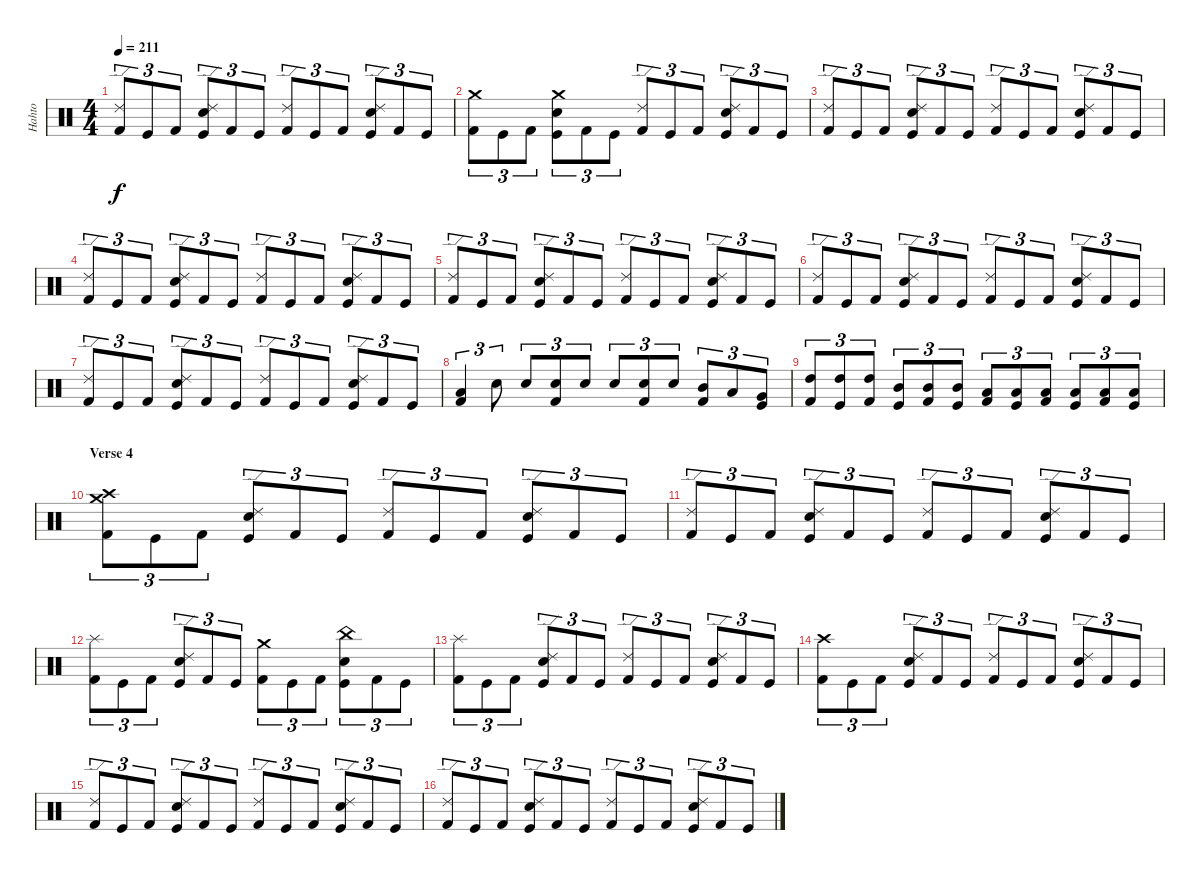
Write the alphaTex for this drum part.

\track ("Hahto" "Hahto") {instrument percussion}
\staff {score}
\articulation defaults
\ts (4 4)
\tempo 211
\clef neutral
\ks c
("Ride (edge) 2" "Kick (hit) 2").8{tu (3 2) dy f} "Kick (hit)".8{tu (3 2)} "Kick (hit) 2".8{tu (3 2)} ("Ride (edge) 2" "Snare (hit) 2" "Kick (hit)").8{tu (3 2)} "Kick (hit) 2".8{tu (3 2)} "Kick (hit)".8{tu (3 2)} ("Ride (edge) 2" "Kick (hit) 2").8{tu (3 2)} "Kick (hit)".8{tu (3 2)} "Kick (hit) 2".8{tu (3 2)} ("Ride (edge) 2" "Snare (hit) 2" "Kick (hit)").8{tu (3 2)} "Kick (hit) 2".8{tu (3 2)} "Kick (hit)".8{tu (3 2)} |
("Crash medium (hit)" "Kick (hit) 2").8{tu (3 2)} "Kick (hit)".8{tu (3 2)} "Kick (hit) 2".8{tu (3 2)} ("Crash medium (hit)" "Snare (hit) 2" "Kick (hit)").8{tu (3 2)} "Kick (hit) 2".8{tu (3 2)} "Kick (hit)".8{tu (3 2)} ("Ride (edge) 2" "Kick (hit) 2").8{tu (3 2)} "Kick (hit)".8{tu (3 2)} "Kick (hit) 2".8{tu (3 2)} ("Ride (edge) 2" "Snare (hit) 2" "Kick (hit)").8{tu (3 2)} "Kick (hit) 2".8{tu (3 2)} "Kick (hit)".8{tu (3 2)} |
("Ride (edge) 2" "Kick (hit) 2").8{tu (3 2)} "Kick (hit)".8{tu (3 2)} "Kick (hit) 2".8{tu (3 2)} ("Ride (edge) 2" "Snare (hit) 2" "Kick (hit)").8{tu (3 2)} "Kick (hit) 2".8{tu (3 2)} "Kick (hit)".8{tu (3 2)} ("Ride (edge) 2" "Kick (hit) 2").8{tu (3 2)} "Kick (hit)".8{tu (3 2)} "Kick (hit) 2".8{tu (3 2)} ("Ride (edge) 2" "Snare (hit) 2" "Kick (hit)").8{tu (3 2)} "Kick (hit) 2".8{tu (3 2)} "Kick (hit)".8{tu (3 2)} |
("Ride (edge) 2" "Kick (hit) 2").8{tu (3 2)} "Kick (hit)".8{tu (3 2)} "Kick (hit) 2".8{tu (3 2)} ("Ride (edge) 2" "Snare (hit) 2" "Kick (hit)").8{tu (3 2)} "Kick (hit) 2".8{tu (3 2)} "Kick (hit)".8{tu (3 2)} ("Ride (edge) 2" "Kick (hit) 2").8{tu (3 2)} "Kick (hit)".8{tu (3 2)} "Kick (hit) 2".8{tu (3 2)} ("Ride (edge) 2" "Snare (hit) 2" "Kick (hit)").8{tu (3 2)} "Kick (hit) 2".8{tu (3 2)} "Kick (hit)".8{tu (3 2)} |
("Ride (edge) 2" "Kick (hit) 2").8{tu (3 2)} "Kick (hit)".8{tu (3 2)} "Kick (hit) 2".8{tu (3 2)} ("Ride (edge) 2" "Snare (hit) 2" "Kick (hit)").8{tu (3 2)} "Kick (hit) 2".8{tu (3 2)} "Kick (hit)".8{tu (3 2)} ("Ride (edge) 2" "Kick (hit) 2").8{tu (3 2)} "Kick (hit)".8{tu (3 2)} "Kick (hit) 2".8{tu (3 2)} ("Ride (edge) 2" "Snare (hit) 2" "Kick (hit)").8{tu (3 2)} "Kick (hit) 2".8{tu (3 2)} "Kick (hit)".8{tu (3 2)} |
("Ride (edge) 2" "Kick (hit) 2").8{tu (3 2)} "Kick (hit)".8{tu (3 2)} "Kick (hit) 2".8{tu (3 2)} ("Ride (edge) 2" "Snare (hit) 2" "Kick (hit)").8{tu (3 2)} "Kick (hit) 2".8{tu (3 2)} "Kick (hit)".8{tu (3 2)} ("Ride (edge) 2" "Kick (hit) 2").8{tu (3 2)} "Kick (hit)".8{tu (3 2)} "Kick (hit) 2".8{tu (3 2)} ("Ride (edge) 2" "Snare (hit) 2" "Kick (hit)").8{tu (3 2)} "Kick (hit) 2".8{tu (3 2)} "Kick (hit)".8{tu (3 2)} |
("Ride (edge) 2" "Kick (hit) 2").8{tu (3 2)} "Kick (hit)".8{tu (3 2)} "Kick (hit) 2".8{tu (3 2)} ("Ride (edge) 2" "Snare (hit) 2" "Kick (hit)").8{tu (3 2)} "Kick (hit) 2".8{tu (3 2)} "Kick (hit)".8{tu (3 2)} ("Ride (edge) 2" "Kick (hit) 2").8{tu (3 2)} "Kick (hit)".8{tu (3 2)} "Kick (hit) 2".8{tu (3 2)} ("Ride (edge) 2" "Snare (hit) 2" "Kick (hit)").8{tu (3 2)} "Kick (hit) 2".8{tu (3 2)} "Kick (hit)".8{tu (3 2)} |
("Low Tom (hit)" "Kick (hit) 2").4{tu (3 2)} "Snare (hit) 2".8{tu (3 2)} "Snare (hit) 2".8{tu (3 2)} ("Snare (hit) 2" "Kick (hit) 2").8{tu (3 2)} "Snare (hit) 2".8{tu (3 2)} "Snare (hit) 2".8{tu (3 2)} ("Snare (hit) 2" "Kick (hit) 2").8{tu (3 2)} "Snare (hit) 2".8{tu (3 2)} ("Mid Tom (hit)" "Kick (hit) 2").8{tu (3 2)} "Low Tom (hit)".8{tu (3 2)} ("Very Low Tom (hit)" "Kick (hit)").8{tu (3 2)} |
("High Tom (hit)" "Kick (hit) 2").8{tu (3 2)} ("High Tom (hit)" "Kick (hit)").8{tu (3 2)} ("High Tom (hit)" "Kick (hit) 2").8{tu (3 2)} ("Mid Tom (hit)" "Kick (hit)").8{tu (3 2)} ("Mid Tom (hit)" "Kick (hit) 2").8{tu (3 2)} ("Mid Tom (hit)" "Kick (hit)").8{tu (3 2)} ("Low Tom (hit)" "Kick (hit) 2").8{tu (3 2)} ("Low Tom (hit)" "Kick (hit)").8{tu (3 2)} ("Low Tom (hit)" "Kick (hit) 2").8{tu (3 2)} ("Low Floor Tom (hit)" "Kick (hit)").8{tu (3 2)} ("Low Floor Tom (hit)" "Kick (hit) 2").8{tu (3 2)} ("Low Floor Tom (hit)" "Kick (hit)").8{tu (3 2)} |
\section ("" "Verse 4")
("Crash medium (hit)" "Crash high (hit)" "Kick (hit) 2").8{tu (3 2)} "Kick (hit)".8{tu (3 2)} "Kick (hit) 2".8{tu (3 2)} ("Ride (edge) 2" "Snare (hit) 2" "Kick (hit)").8{tu (3 2)} "Kick (hit) 2".8{tu (3 2)} "Kick (hit)".8{tu (3 2)} ("Ride (edge) 2" "Kick (hit) 2").8{tu (3 2)} "Kick (hit)".8{tu (3 2)} "Kick (hit) 2".8{tu (3 2)} ("Ride (edge) 2" "Snare (hit) 2" "Kick (hit)").8{tu (3 2)} "Kick (hit) 2".8{tu (3 2)} "Kick (hit)".8{tu (3 2)} |
("Ride (edge) 2" "Kick (hit) 2").8{tu (3 2)} "Kick (hit)".8{tu (3 2)} "Kick (hit) 2".8{tu (3 2)} ("Ride (edge) 2" "Snare (hit) 2" "Kick (hit)").8{tu (3 2)} "Kick (hit) 2".8{tu (3 2)} "Kick (hit)".8{tu (3 2)} ("Ride (edge) 2" "Kick (hit) 2").8{tu (3 2)} "Kick (hit)".8{tu (3 2)} "Kick (hit) 2".8{tu (3 2)} ("Ride (edge) 2" "Snare (hit) 2" "Kick (hit)").8{tu (3 2)} "Kick (hit) 2".8{tu (3 2)} "Kick (hit)".8{tu (3 2)} |
("Splash (hit)" "Kick (hit) 2").8{tu (3 2)} "Kick (hit)".8{tu (3 2)} "Kick (hit) 2".8{tu (3 2)} ("Ride (edge) 2" "Snare (hit) 2" "Kick (hit)").8{tu (3 2)} "Kick (hit) 2".8{tu (3 2)} "Kick (hit)".8{tu (3 2)} ("Crash medium (hit)" "Kick (hit) 2").8{tu (3 2)} "Kick (hit)".8{tu (3 2)} "Kick (hit) 2".8{tu (3 2)} ("China (hit)" "Snare (hit) 2" "Kick (hit)").8{tu (3 2)} "Kick (hit) 2".8{tu (3 2)} "Kick (hit)".8{tu (3 2)} |
("Splash (hit)" "Kick (hit) 2").8{tu (3 2)} "Kick (hit)".8{tu (3 2)} "Kick (hit) 2".8{tu (3 2)} ("Ride (edge) 2" "Snare (hit) 2" "Kick (hit)").8{tu (3 2)} "Kick (hit) 2".8{tu (3 2)} "Kick (hit)".8{tu (3 2)} ("Ride (edge) 2" "Kick (hit) 2").8{tu (3 2)} "Kick (hit)".8{tu (3 2)} "Kick (hit) 2".8{tu (3 2)} ("Ride (edge) 2" "Snare (hit) 2" "Kick (hit)").8{tu (3 2)} "Kick (hit) 2".8{tu (3 2)} "Kick (hit)".8{tu (3 2)} |
("Crash high (hit)" "Kick (hit) 2").8{tu (3 2)} "Kick (hit)".8{tu (3 2)} "Kick (hit) 2".8{tu (3 2)} ("Ride (edge) 2" "Snare (hit) 2" "Kick (hit)").8{tu (3 2)} "Kick (hit) 2".8{tu (3 2)} "Kick (hit)".8{tu (3 2)} ("Ride (edge) 2" "Kick (hit) 2").8{tu (3 2)} "Kick (hit)".8{tu (3 2)} "Kick (hit) 2".8{tu (3 2)} ("Ride (edge) 2" "Snare (hit) 2" "Kick (hit)").8{tu (3 2)} "Kick (hit) 2".8{tu (3 2)} "Kick (hit)".8{tu (3 2)} |
("Ride (edge) 2" "Kick (hit) 2").8{tu (3 2)} "Kick (hit)".8{tu (3 2)} "Kick (hit) 2".8{tu (3 2)} ("Ride (edge) 2" "Snare (hit) 2" "Kick (hit)").8{tu (3 2)} "Kick (hit) 2".8{tu (3 2)} "Kick (hit)".8{tu (3 2)} ("Ride (edge) 2" "Kick (hit) 2").8{tu (3 2)} "Kick (hit)".8{tu (3 2)} "Kick (hit) 2".8{tu (3 2)} ("Ride (edge) 2" "Snare (hit) 2" "Kick (hit)").8{tu (3 2)} "Kick (hit) 2".8{tu (3 2)} "Kick (hit)".8{tu (3 2)} |
("Ride (edge) 2" "Kick (hit) 2").8{tu (3 2)} "Kick (hit)".8{tu (3 2)} "Kick (hit) 2".8{tu (3 2)} ("Ride (edge) 2" "Snare (hit) 2" "Kick (hit)").8{tu (3 2)} "Kick (hit) 2".8{tu (3 2)} "Kick (hit)".8{tu (3 2)} ("Ride (edge) 2" "Kick (hit) 2").8{tu (3 2)} "Kick (hit)".8{tu (3 2)} "Kick (hit) 2".8{tu (3 2)} ("Ride (edge) 2" "Snare (hit) 2" "Kick (hit)").8{tu (3 2)} "Kick (hit) 2".8{tu (3 2)} "Kick (hit)".8{tu (3 2)}
